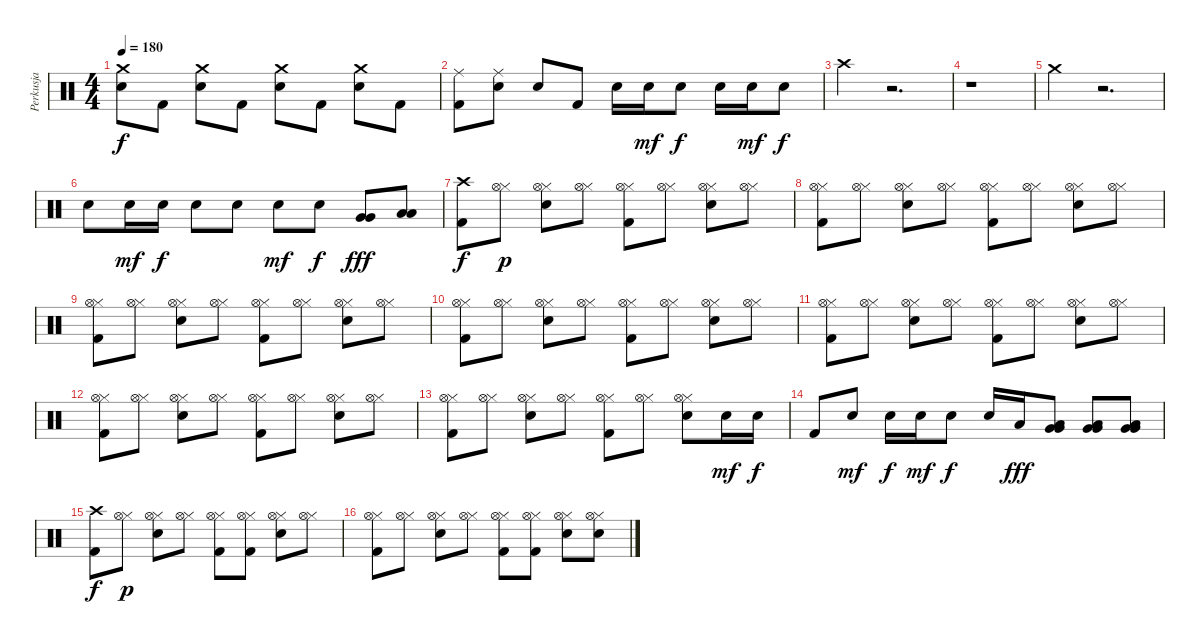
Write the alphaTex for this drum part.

\track ("Perkusja" "Perkusja") {instrument percussion}
\staff {score}
\articulation defaults
\ts (4 4)
\tempo 180
\clef neutral
\ks c
("Electric Snare (hit)" "Crash medium (hit)").8{dy f} "Kick (hit) 2".8 ("Electric Snare (hit)" "Crash medium (hit)").8 "Kick (hit) 2".8 ("Electric Snare (hit)" "Crash medium (hit)").8 "Kick (hit) 2".8 ("Electric Snare (hit)" "Crash medium (hit)").8 "Kick (hit) 2".8 |
("Kick (hit) 2" "Ride (middle)").8 ("Electric Snare (hit)" "Ride (middle)").8 "Electric Snare (hit)".8 "Kick (hit) 2".8 "Electric Snare (hit)".16 "Electric Snare (hit)".16{dy mf} "Electric Snare (hit)".8{dy f} "Electric Snare (hit)".16 "Electric Snare (hit)".16{dy mf} "Electric Snare (hit)".8{dy f} |
"Crash high (hit)".4 r.2{d} |
r.1 |
"Crash medium (hit)".4 r.2{d} |
"Electric Snare (hit)".8 "Electric Snare (hit)".16{dy mf} "Electric Snare (hit)".16{dy f} "Electric Snare (hit)".8 "Electric Snare (hit)".8 "Electric Snare (hit)".8{dy mf} "Electric Snare (hit)".8{dy f} ("Very Low Tom (hit)" "Very Low Tom (hit)").8{dy fff} ("Low Floor Tom (hit)" "Low Floor Tom (hit)").8 |
("Kick (hit) 2" "Crash high (hit)").8{dy f} ("Hi-Hat (closed)" "Hi-Hat (open)").8{dy p} ("Electric Snare (hit)" "Hi-Hat (closed)" "Hi-Hat (open)").8 ("Hi-Hat (closed)" "Hi-Hat (open)").8 ("Kick (hit) 2" "Hi-Hat (closed)" "Hi-Hat (open)").8 ("Hi-Hat (closed)" "Hi-Hat (open)").8 ("Electric Snare (hit)" "Hi-Hat (closed)" "Hi-Hat (open)").8 ("Hi-Hat (closed)" "Hi-Hat (open)").8 |
("Kick (hit) 2" "Hi-Hat (closed)" "Hi-Hat (open)").8 ("Hi-Hat (closed)" "Hi-Hat (open)").8 ("Electric Snare (hit)" "Hi-Hat (closed)" "Hi-Hat (open)").8 ("Hi-Hat (closed)" "Hi-Hat (open)").8 ("Kick (hit) 2" "Hi-Hat (closed)" "Hi-Hat (open)").8 ("Hi-Hat (closed)" "Hi-Hat (open)").8 ("Electric Snare (hit)" "Hi-Hat (closed)" "Hi-Hat (open)").8 ("Hi-Hat (closed)" "Hi-Hat (open)").8 |
("Kick (hit) 2" "Hi-Hat (closed)" "Hi-Hat (open)").8 ("Hi-Hat (closed)" "Hi-Hat (open)").8 ("Electric Snare (hit)" "Hi-Hat (closed)" "Hi-Hat (open)").8 ("Hi-Hat (closed)" "Hi-Hat (open)").8 ("Kick (hit) 2" "Hi-Hat (closed)" "Hi-Hat (open)").8 ("Hi-Hat (closed)" "Hi-Hat (open)").8 ("Electric Snare (hit)" "Hi-Hat (closed)" "Hi-Hat (open)").8 ("Hi-Hat (closed)" "Hi-Hat (open)").8 |
("Kick (hit) 2" "Hi-Hat (closed)" "Hi-Hat (open)").8 ("Hi-Hat (closed)" "Hi-Hat (open)").8 ("Electric Snare (hit)" "Hi-Hat (closed)" "Hi-Hat (open)").8 ("Hi-Hat (closed)" "Hi-Hat (open)").8 ("Kick (hit) 2" "Hi-Hat (closed)" "Hi-Hat (open)").8 ("Hi-Hat (closed)" "Hi-Hat (open)").8 ("Electric Snare (hit)" "Hi-Hat (closed)" "Hi-Hat (open)").8 ("Hi-Hat (closed)" "Hi-Hat (open)").8 |
("Kick (hit) 2" "Hi-Hat (closed)" "Hi-Hat (open)").8 ("Hi-Hat (closed)" "Hi-Hat (open)").8 ("Electric Snare (hit)" "Hi-Hat (closed)" "Hi-Hat (open)").8 ("Hi-Hat (closed)" "Hi-Hat (open)").8 ("Kick (hit) 2" "Hi-Hat (closed)" "Hi-Hat (open)").8 ("Hi-Hat (closed)" "Hi-Hat (open)").8 ("Electric Snare (hit)" "Hi-Hat (closed)" "Hi-Hat (open)").8 ("Hi-Hat (closed)" "Hi-Hat (open)").8 |
("Kick (hit) 2" "Hi-Hat (closed)" "Hi-Hat (open)").8 ("Hi-Hat (closed)" "Hi-Hat (open)").8 ("Electric Snare (hit)" "Hi-Hat (closed)" "Hi-Hat (open)").8 ("Hi-Hat (closed)" "Hi-Hat (open)").8 ("Kick (hit) 2" "Hi-Hat (closed)" "Hi-Hat (open)").8 ("Hi-Hat (closed)" "Hi-Hat (open)").8 ("Electric Snare (hit)" "Hi-Hat (closed)" "Hi-Hat (open)").8 ("Hi-Hat (closed)" "Hi-Hat (open)").8 |
("Kick (hit) 2" "Hi-Hat (closed)" "Hi-Hat (open)").8 ("Hi-Hat (closed)" "Hi-Hat (open)").8 ("Electric Snare (hit)" "Hi-Hat (closed)" "Hi-Hat (open)").8 ("Hi-Hat (closed)" "Hi-Hat (open)").8 ("Kick (hit) 2" "Hi-Hat (closed)" "Hi-Hat (open)").8 ("Hi-Hat (closed)" "Hi-Hat (open)").8 ("Electric Snare (hit)" "Hi-Hat (closed)" "Hi-Hat (open)").8 "Electric Snare (hit)".16{dy mf} "Electric Snare (hit)".16{dy f} |
"Kick (hit) 2".8 "Electric Snare (hit)".8{dy mf} "Electric Snare (hit)".16{dy f} "Electric Snare (hit)".16{dy mf} "Electric Snare (hit)".8{dy f} "Electric Snare (hit)".16 "Low Tom (hit)".16{dy fff} ("Very Low Tom (hit)" "Very Low Tom (hit)" "Low Floor Tom (hit)").8 ("Very Low Tom (hit)" "Very Low Tom (hit)" "Low Floor Tom (hit)").8 ("Very Low Tom (hit)" "Very Low Tom (hit)" "Low Floor Tom (hit)").8 |
("Kick (hit) 2" "Crash high (hit)").8{dy f} ("Hi-Hat (closed)" "Hi-Hat (open)").8{dy p} ("Electric Snare (hit)" "Hi-Hat (closed)" "Hi-Hat (open)").8 ("Hi-Hat (closed)" "Hi-Hat (open)").8 ("Kick (hit) 2" "Hi-Hat (closed)" "Hi-Hat (open)").8 ("Kick (hit) 2" "Hi-Hat (closed)" "Hi-Hat (open)").8 ("Electric Snare (hit)" "Hi-Hat (closed)" "Hi-Hat (open)").8 ("Hi-Hat (closed)" "Hi-Hat (open)").8 |
("Kick (hit) 2" "Hi-Hat (closed)" "Hi-Hat (open)").8 ("Hi-Hat (closed)" "Hi-Hat (open)").8 ("Electric Snare (hit)" "Hi-Hat (closed)" "Hi-Hat (open)").8 ("Hi-Hat (closed)" "Hi-Hat (open)").8 ("Kick (hit) 2" "Hi-Hat (closed)" "Hi-Hat (open)").8 ("Kick (hit) 2" "Hi-Hat (closed)" "Hi-Hat (open)").8 ("Electric Snare (hit)" "Hi-Hat (closed)" "Hi-Hat (open)").8 ("Electric Snare (hit)" "Hi-Hat (closed)" "Hi-Hat (open)").8
